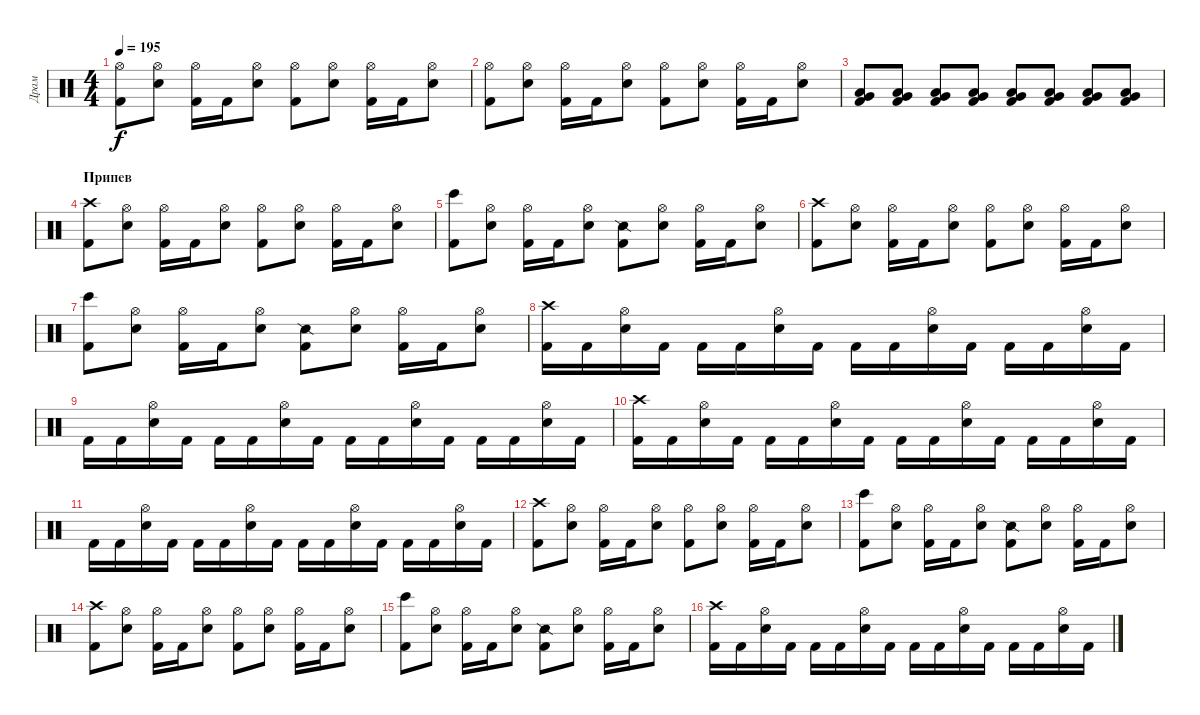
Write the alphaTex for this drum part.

\track ("Драм" "Драм") {instrument percussion}
\staff {score}
\articulation defaults
\ts (4 4)
\tempo 195
\clef neutral
\ks c
("Hi-Hat (open)" "Kick (hit) 2").8{dy f} ("Hi-Hat (open)" "Snare (hit) 2").8 ("Hi-Hat (open)" "Kick (hit) 2").16 "Kick (hit) 2".16 ("Hi-Hat (open)" "Snare (hit) 2").8 ("Hi-Hat (open)" "Kick (hit) 2").8 ("Hi-Hat (open)" "Snare (hit) 2").8 ("Hi-Hat (open)" "Kick (hit) 2").16 "Kick (hit) 2".16 ("Hi-Hat (open)" "Snare (hit) 2").8 |
("Hi-Hat (open)" "Kick (hit) 2").8 ("Hi-Hat (open)" "Snare (hit) 2").8 ("Hi-Hat (open)" "Kick (hit) 2").16 "Kick (hit) 2".16 ("Hi-Hat (open)" "Snare (hit) 2").8 ("Hi-Hat (open)" "Kick (hit) 2").8 ("Hi-Hat (open)" "Snare (hit) 2").8 ("Hi-Hat (open)" "Kick (hit) 2").16 "Kick (hit) 2".16 ("Hi-Hat (open)" "Snare (hit) 2").8 |
("Very Low Tom (hit)" "Low Floor Tom (hit)" "Kick (hit) 2").8 ("Very Low Tom (hit)" "Low Floor Tom (hit)" "Kick (hit) 2").8 ("Very Low Tom (hit)" "Low Floor Tom (hit)" "Kick (hit) 2").8 ("Very Low Tom (hit)" "Low Floor Tom (hit)" "Kick (hit) 2").8 ("Very Low Tom (hit)" "Low Floor Tom (hit)" "Kick (hit) 2").8 ("Very Low Tom (hit)" "Low Floor Tom (hit)" "Kick (hit) 2").8 ("Very Low Tom (hit)" "Low Floor Tom (hit)" "Kick (hit) 2").8 ("Very Low Tom (hit)" "Low Floor Tom (hit)" "Kick (hit) 2").8 |
\section ("" "Припев")
("Kick (hit) 2" "Crash high (hit)").8 ("Hi-Hat (open)" "Snare (hit) 2").8 ("Hi-Hat (open)" "Kick (hit) 2").16 "Kick (hit) 2".16 ("Hi-Hat (open)" "Snare (hit) 2").8 ("Hi-Hat (open)" "Kick (hit) 2").8 ("Hi-Hat (open)" "Snare (hit) 2").8 ("Hi-Hat (open)" "Kick (hit) 2").16 "Kick (hit) 2".16 ("Hi-Hat (open)" "Snare (hit) 2").8 |
("Kick (hit) 2" "Bongo High (hit)").8 ("Hi-Hat (open)" "Snare (hit) 2").8 ("Hi-Hat (open)" "Kick (hit) 2").16 "Kick (hit) 2".16 ("Hi-Hat (open)" "Snare (hit) 2").8 ("Kick (hit) 2" "Snare (side stick) 2").8 ("Hi-Hat (open)" "Snare (hit) 2").8 ("Hi-Hat (open)" "Kick (hit) 2").16 "Kick (hit) 2".16 ("Hi-Hat (open)" "Snare (hit) 2").8 |
("Kick (hit) 2" "Crash high (hit)").8 ("Hi-Hat (open)" "Snare (hit) 2").8 ("Hi-Hat (open)" "Kick (hit) 2").16 "Kick (hit) 2".16 ("Hi-Hat (open)" "Snare (hit) 2").8 ("Hi-Hat (open)" "Kick (hit) 2").8 ("Hi-Hat (open)" "Snare (hit) 2").8 ("Hi-Hat (open)" "Kick (hit) 2").16 "Kick (hit) 2".16 ("Hi-Hat (open)" "Snare (hit) 2").8 |
("Kick (hit) 2" "Bongo High (hit)").8 ("Hi-Hat (open)" "Snare (hit) 2").8 ("Hi-Hat (open)" "Kick (hit) 2").16 "Kick (hit) 2".16 ("Hi-Hat (open)" "Snare (hit) 2").8 ("Kick (hit) 2" "Snare (side stick) 2").8 ("Hi-Hat (open)" "Snare (hit) 2").8 ("Hi-Hat (open)" "Kick (hit) 2").16 "Kick (hit) 2".16 ("Hi-Hat (open)" "Snare (hit) 2").8 |
("Kick (hit) 2" "Crash high (hit)").16 "Kick (hit) 2".16 ("Hi-Hat (open)" "Snare (hit) 2").16 "Kick (hit) 2".16 "Kick (hit) 2".16 "Kick (hit) 2".16 ("Hi-Hat (open)" "Snare (hit) 2").16 "Kick (hit) 2".16 "Kick (hit) 2".16 "Kick (hit) 2".16 ("Hi-Hat (open)" "Snare (hit) 2").16 "Kick (hit) 2".16 "Kick (hit) 2".16 "Kick (hit) 2".16 ("Hi-Hat (open)" "Snare (hit) 2").16 "Kick (hit) 2".16 |
"Kick (hit) 2".16 "Kick (hit) 2".16 ("Hi-Hat (open)" "Snare (hit) 2").16 "Kick (hit) 2".16 "Kick (hit) 2".16 "Kick (hit) 2".16 ("Hi-Hat (open)" "Snare (hit) 2").16 "Kick (hit) 2".16 "Kick (hit) 2".16 "Kick (hit) 2".16 ("Hi-Hat (open)" "Snare (hit) 2").16 "Kick (hit) 2".16 "Kick (hit) 2".16 "Kick (hit) 2".16 ("Hi-Hat (open)" "Snare (hit) 2").16 "Kick (hit) 2".16 |
("Kick (hit) 2" "Crash high (hit)").16 "Kick (hit) 2".16 ("Hi-Hat (open)" "Snare (hit) 2").16 "Kick (hit) 2".16 "Kick (hit) 2".16 "Kick (hit) 2".16 ("Hi-Hat (open)" "Snare (hit) 2").16 "Kick (hit) 2".16 "Kick (hit) 2".16 "Kick (hit) 2".16 ("Hi-Hat (open)" "Snare (hit) 2").16 "Kick (hit) 2".16 "Kick (hit) 2".16 "Kick (hit) 2".16 ("Hi-Hat (open)" "Snare (hit) 2").16 "Kick (hit) 2".16 |
"Kick (hit) 2".16 "Kick (hit) 2".16 ("Hi-Hat (open)" "Snare (hit) 2").16 "Kick (hit) 2".16 "Kick (hit) 2".16 "Kick (hit) 2".16 ("Hi-Hat (open)" "Snare (hit) 2").16 "Kick (hit) 2".16 "Kick (hit) 2".16 "Kick (hit) 2".16 ("Hi-Hat (open)" "Snare (hit) 2").16 "Kick (hit) 2".16 "Kick (hit) 2".16 "Kick (hit) 2".16 ("Hi-Hat (open)" "Snare (hit) 2").16 "Kick (hit) 2".16 |
("Kick (hit) 2" "Crash high (hit)").8 ("Hi-Hat (open)" "Snare (hit) 2").8 ("Hi-Hat (open)" "Kick (hit) 2").16 "Kick (hit) 2".16 ("Hi-Hat (open)" "Snare (hit) 2").8 ("Hi-Hat (open)" "Kick (hit) 2").8 ("Hi-Hat (open)" "Snare (hit) 2").8 ("Hi-Hat (open)" "Kick (hit) 2").16 "Kick (hit) 2".16 ("Hi-Hat (open)" "Snare (hit) 2").8 |
("Kick (hit) 2" "Bongo High (hit)").8 ("Hi-Hat (open)" "Snare (hit) 2").8 ("Hi-Hat (open)" "Kick (hit) 2").16 "Kick (hit) 2".16 ("Hi-Hat (open)" "Snare (hit) 2").8 ("Kick (hit) 2" "Snare (side stick) 2").8 ("Hi-Hat (open)" "Snare (hit) 2").8 ("Hi-Hat (open)" "Kick (hit) 2").16 "Kick (hit) 2".16 ("Hi-Hat (open)" "Snare (hit) 2").8 |
("Kick (hit) 2" "Crash high (hit)").8 ("Hi-Hat (open)" "Snare (hit) 2").8 ("Hi-Hat (open)" "Kick (hit) 2").16 "Kick (hit) 2".16 ("Hi-Hat (open)" "Snare (hit) 2").8 ("Hi-Hat (open)" "Kick (hit) 2").8 ("Hi-Hat (open)" "Snare (hit) 2").8 ("Hi-Hat (open)" "Kick (hit) 2").16 "Kick (hit) 2".16 ("Hi-Hat (open)" "Snare (hit) 2").8 |
("Kick (hit) 2" "Bongo High (hit)").8 ("Hi-Hat (open)" "Snare (hit) 2").8 ("Hi-Hat (open)" "Kick (hit) 2").16 "Kick (hit) 2".16 ("Hi-Hat (open)" "Snare (hit) 2").8 ("Kick (hit) 2" "Snare (side stick) 2").8 ("Hi-Hat (open)" "Snare (hit) 2").8 ("Hi-Hat (open)" "Kick (hit) 2").16 "Kick (hit) 2".16 ("Hi-Hat (open)" "Snare (hit) 2").8 |
("Kick (hit) 2" "Crash high (hit)").16 "Kick (hit) 2".16 ("Hi-Hat (open)" "Snare (hit) 2").16 "Kick (hit) 2".16 "Kick (hit) 2".16 "Kick (hit) 2".16 ("Hi-Hat (open)" "Snare (hit) 2").16 "Kick (hit) 2".16 "Kick (hit) 2".16 "Kick (hit) 2".16 ("Hi-Hat (open)" "Snare (hit) 2").16 "Kick (hit) 2".16 "Kick (hit) 2".16 "Kick (hit) 2".16 ("Hi-Hat (open)" "Snare (hit) 2").16 "Kick (hit) 2".16
